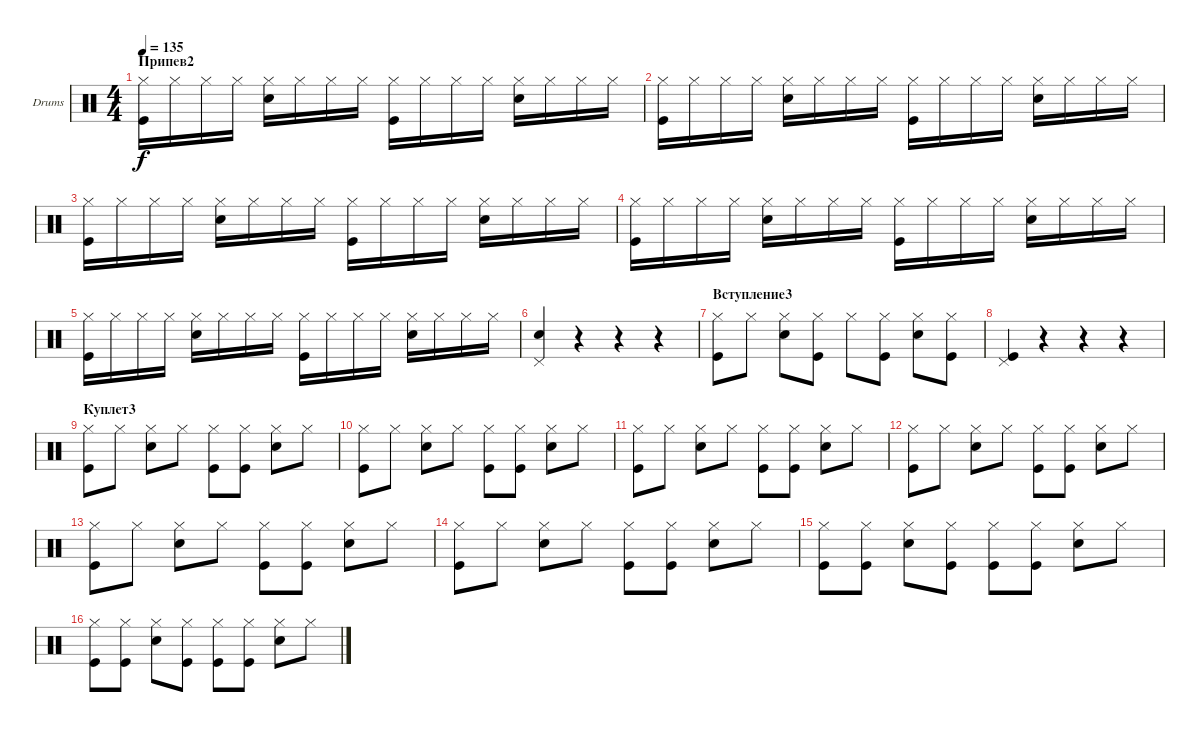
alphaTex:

\defaultSystemsLayout 4
\bracketExtendMode groupsimilarinstruments
\firstSystemTrackNameOrientation horizontal
\otherSystemsTrackNameOrientation horizontal
\track ("Drumkit" "Drums") {instrument percussion}
\staff {score}
\articulation defaults
\ts (4 4)
\section ("" "Припев2")
\tempo 135
\clef neutral
\ks c
("Hi-Hat (closed)" "Kick (hit)").16{dy f} "Hi-Hat (closed)".16 "Hi-Hat (closed)".16 "Hi-Hat (closed)".16 ("Hi-Hat (closed)" "Snare (hit) 2").16 "Hi-Hat (closed)".16 "Hi-Hat (closed)".16 "Hi-Hat (closed)".16 ("Hi-Hat (closed)" "Kick (hit)").16 "Hi-Hat (closed)".16 "Hi-Hat (closed)".16 "Hi-Hat (closed)".16 ("Hi-Hat (closed)" "Snare (hit) 2").16 "Hi-Hat (closed)".16 "Hi-Hat (closed)".16 "Hi-Hat (closed)".16 |
("Hi-Hat (closed)" "Kick (hit)").16 "Hi-Hat (closed)".16 "Hi-Hat (closed)".16 "Hi-Hat (closed)".16 ("Hi-Hat (closed)" "Snare (hit) 2").16 "Hi-Hat (closed)".16 "Hi-Hat (closed)".16 "Hi-Hat (closed)".16 ("Hi-Hat (closed)" "Kick (hit)").16 "Hi-Hat (closed)".16 "Hi-Hat (closed)".16 "Hi-Hat (closed)".16 ("Hi-Hat (closed)" "Snare (hit) 2").16 "Hi-Hat (closed)".16 "Hi-Hat (closed)".16 "Hi-Hat (closed)".16 |
("Hi-Hat (closed)" "Kick (hit)").16 "Hi-Hat (closed)".16 "Hi-Hat (closed)".16 "Hi-Hat (closed)".16 ("Hi-Hat (closed)" "Snare (hit) 2").16 "Hi-Hat (closed)".16 "Hi-Hat (closed)".16 "Hi-Hat (closed)".16 ("Hi-Hat (closed)" "Kick (hit)").16 "Hi-Hat (closed)".16 "Hi-Hat (closed)".16 "Hi-Hat (closed)".16 ("Hi-Hat (closed)" "Snare (hit) 2").16 "Hi-Hat (closed)".16 "Hi-Hat (closed)".16 "Hi-Hat (closed)".16 |
("Hi-Hat (closed)" "Kick (hit)").16 "Hi-Hat (closed)".16 "Hi-Hat (closed)".16 "Hi-Hat (closed)".16 ("Hi-Hat (closed)" "Snare (hit) 2").16 "Hi-Hat (closed)".16 "Hi-Hat (closed)".16 "Hi-Hat (closed)".16 ("Hi-Hat (closed)" "Kick (hit)").16 "Hi-Hat (closed)".16 "Hi-Hat (closed)".16 "Hi-Hat (closed)".16 ("Hi-Hat (closed)" "Snare (hit) 2").16 "Hi-Hat (closed)".16 "Hi-Hat (closed)".16 "Hi-Hat (closed)".16 |
("Hi-Hat (closed)" "Kick (hit)").16 "Hi-Hat (closed)".16 "Hi-Hat (closed)".16 "Hi-Hat (closed)".16 ("Hi-Hat (closed)" "Snare (hit) 2").16 "Hi-Hat (closed)".16 "Hi-Hat (closed)".16 "Hi-Hat (closed)".16 ("Hi-Hat (closed)" "Kick (hit)").16 "Hi-Hat (closed)".16 "Hi-Hat (closed)".16 "Hi-Hat (closed)".16 ("Hi-Hat (closed)" "Snare (hit) 2").16 "Hi-Hat (closed)".16 "Hi-Hat (closed)".16 "Hi-Hat (closed)".16 |
("Snare (hit) 2" "Pedal Hi-Hat (hit)").4 r.4 r.4 r.4 |
\section ("" "Вступление3")
("Hi-Hat (closed)" "Kick (hit)").8 "Hi-Hat (closed)".8 ("Hi-Hat (closed)" "Snare (hit) 2").8 ("Hi-Hat (closed)" "Kick (hit)").8 "Hi-Hat (closed)".8 ("Hi-Hat (closed)" "Kick (hit)").8 ("Hi-Hat (closed)" "Snare (hit) 2").8 ("Hi-Hat (closed)" "Kick (hit)").8 |
("Kick (hit)" "Pedal Hi-Hat (hit)").4 r.4 r.4 r.4 |
\section ("" "Куплет3")
("Hi-Hat (closed)" "Kick (hit)").8 "Hi-Hat (closed)".8 ("Hi-Hat (closed)" "Snare (hit) 2").8 "Hi-Hat (closed)".8 ("Hi-Hat (closed)" "Kick (hit)").8 ("Hi-Hat (closed)" "Kick (hit)").8 ("Hi-Hat (closed)" "Snare (hit) 2").8 "Hi-Hat (closed)".8 |
("Hi-Hat (closed)" "Kick (hit)").8 "Hi-Hat (closed)".8 ("Hi-Hat (closed)" "Snare (hit) 2").8 "Hi-Hat (closed)".8 ("Hi-Hat (closed)" "Kick (hit)").8 ("Hi-Hat (closed)" "Kick (hit)").8 ("Hi-Hat (closed)" "Snare (hit) 2").8 "Hi-Hat (closed)".8 |
("Hi-Hat (closed)" "Kick (hit)").8 "Hi-Hat (closed)".8 ("Hi-Hat (closed)" "Snare (hit) 2").8 "Hi-Hat (closed)".8 ("Hi-Hat (closed)" "Kick (hit)").8 ("Hi-Hat (closed)" "Kick (hit)").8 ("Hi-Hat (closed)" "Snare (hit) 2").8 "Hi-Hat (closed)".8 |
("Hi-Hat (closed)" "Kick (hit)").8 "Hi-Hat (closed)".8 ("Hi-Hat (closed)" "Snare (hit) 2").8 "Hi-Hat (closed)".8 ("Hi-Hat (closed)" "Kick (hit)").8 ("Hi-Hat (closed)" "Kick (hit)").8 ("Hi-Hat (closed)" "Snare (hit) 2").8 "Hi-Hat (closed)".8 |
("Hi-Hat (closed)" "Kick (hit)").8 "Hi-Hat (closed)".8 ("Hi-Hat (closed)" "Snare (hit) 2").8 "Hi-Hat (closed)".8 ("Hi-Hat (closed)" "Kick (hit)").8 ("Hi-Hat (closed)" "Kick (hit)").8 ("Hi-Hat (closed)" "Snare (hit) 2").8 "Hi-Hat (closed)".8 |
("Hi-Hat (closed)" "Kick (hit)").8 "Hi-Hat (closed)".8 ("Hi-Hat (closed)" "Snare (hit) 2").8 "Hi-Hat (closed)".8 ("Hi-Hat (closed)" "Kick (hit)").8 ("Hi-Hat (closed)" "Kick (hit)").8 ("Hi-Hat (closed)" "Snare (hit) 2").8 "Hi-Hat (closed)".8 |
("Hi-Hat (closed)" "Kick (hit)").8 ("Hi-Hat (closed)" "Kick (hit)").8 ("Hi-Hat (closed)" "Snare (hit) 2").8 ("Hi-Hat (closed)" "Kick (hit)").8 ("Hi-Hat (closed)" "Kick (hit)").8 ("Hi-Hat (closed)" "Kick (hit)").8 ("Hi-Hat (closed)" "Snare (hit) 2").8 "Hi-Hat (closed)".8 |
("Hi-Hat (closed)" "Kick (hit)").8 ("Hi-Hat (closed)" "Kick (hit)").8 ("Hi-Hat (closed)" "Snare (hit) 2").8 ("Hi-Hat (closed)" "Kick (hit)").8 ("Hi-Hat (closed)" "Kick (hit)").8 ("Hi-Hat (closed)" "Kick (hit)").8 ("Hi-Hat (closed)" "Snare (hit) 2").8 "Hi-Hat (closed)".8
